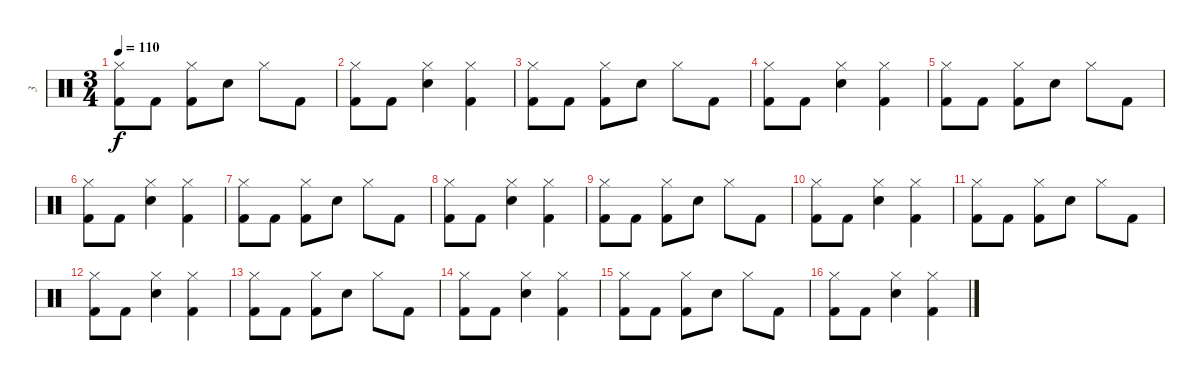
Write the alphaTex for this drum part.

\track ("3" "3") {instrument percussion}
\staff {score}
\articulation defaults
\ts (3 4)
\tempo 110
\clef neutral
\ks c
("Hi-Hat (closed)" "Kick (hit) 2").8{dy f} "Kick (hit) 2".8 ("Hi-Hat (closed)" "Kick (hit) 2").8 "Snare (hit) 2".8 "Hi-Hat (closed)".8 "Kick (hit) 2".8 |
("Hi-Hat (closed)" "Kick (hit) 2").8 "Kick (hit) 2".8 ("Hi-Hat (closed)" "Snare (hit) 2").4 ("Hi-Hat (closed)" "Kick (hit) 2").4 |
("Hi-Hat (closed)" "Kick (hit) 2").8 "Kick (hit) 2".8 ("Hi-Hat (closed)" "Kick (hit) 2").8 "Snare (hit) 2".8 "Hi-Hat (closed)".8 "Kick (hit) 2".8 |
("Hi-Hat (closed)" "Kick (hit) 2").8 "Kick (hit) 2".8 ("Hi-Hat (closed)" "Snare (hit) 2").4 ("Hi-Hat (closed)" "Kick (hit) 2").4 |
("Hi-Hat (closed)" "Kick (hit) 2").8 "Kick (hit) 2".8 ("Hi-Hat (closed)" "Kick (hit) 2").8 "Snare (hit) 2".8 "Hi-Hat (closed)".8 "Kick (hit) 2".8 |
("Hi-Hat (closed)" "Kick (hit) 2").8 "Kick (hit) 2".8 ("Hi-Hat (closed)" "Snare (hit) 2").4 ("Hi-Hat (closed)" "Kick (hit) 2").4 |
("Hi-Hat (closed)" "Kick (hit) 2").8 "Kick (hit) 2".8 ("Hi-Hat (closed)" "Kick (hit) 2").8 "Snare (hit) 2".8 "Hi-Hat (closed)".8 "Kick (hit) 2".8 |
("Hi-Hat (closed)" "Kick (hit) 2").8 "Kick (hit) 2".8 ("Hi-Hat (closed)" "Snare (hit) 2").4 ("Hi-Hat (closed)" "Kick (hit) 2").4 |
("Hi-Hat (closed)" "Kick (hit) 2").8 "Kick (hit) 2".8 ("Hi-Hat (closed)" "Kick (hit) 2").8 "Snare (hit) 2".8 "Hi-Hat (closed)".8 "Kick (hit) 2".8 |
("Hi-Hat (closed)" "Kick (hit) 2").8 "Kick (hit) 2".8 ("Hi-Hat (closed)" "Snare (hit) 2").4 ("Hi-Hat (closed)" "Kick (hit) 2").4 |
("Hi-Hat (closed)" "Kick (hit) 2").8 "Kick (hit) 2".8 ("Hi-Hat (closed)" "Kick (hit) 2").8 "Snare (hit) 2".8 "Hi-Hat (closed)".8 "Kick (hit) 2".8 |
("Hi-Hat (closed)" "Kick (hit) 2").8 "Kick (hit) 2".8 ("Hi-Hat (closed)" "Snare (hit) 2").4 ("Hi-Hat (closed)" "Kick (hit) 2").4 |
("Hi-Hat (closed)" "Kick (hit) 2").8 "Kick (hit) 2".8 ("Hi-Hat (closed)" "Kick (hit) 2").8 "Snare (hit) 2".8 "Hi-Hat (closed)".8 "Kick (hit) 2".8 |
("Hi-Hat (closed)" "Kick (hit) 2").8 "Kick (hit) 2".8 ("Hi-Hat (closed)" "Snare (hit) 2").4 ("Hi-Hat (closed)" "Kick (hit) 2").4 |
("Hi-Hat (closed)" "Kick (hit) 2").8 "Kick (hit) 2".8 ("Hi-Hat (closed)" "Kick (hit) 2").8 "Snare (hit) 2".8 "Hi-Hat (closed)".8 "Kick (hit) 2".8 |
("Hi-Hat (closed)" "Kick (hit) 2").8 "Kick (hit) 2".8 ("Hi-Hat (closed)" "Snare (hit) 2").4 ("Hi-Hat (closed)" "Kick (hit) 2").4
